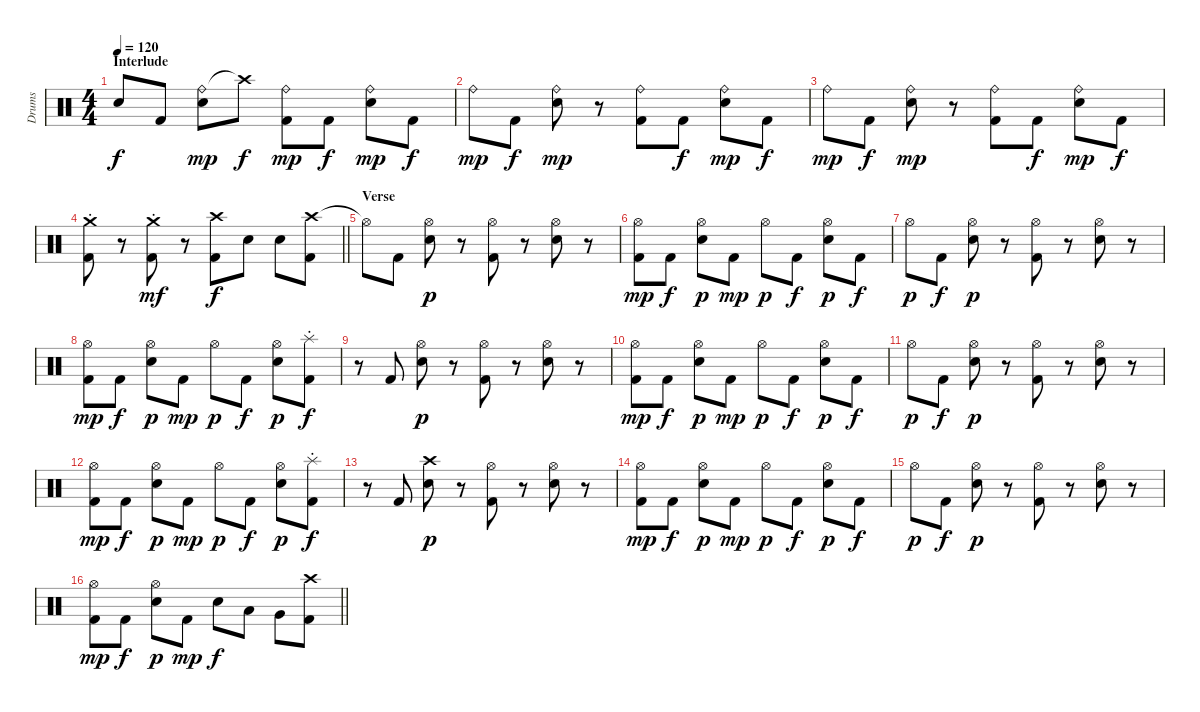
\track ("Drums" "Drums") {instrument percussion}
\staff {score}
\articulation defaults
\ts (4 4)
\section ("" "Interlude")
\tempo 120
\clef neutral
\ks c "Snare (hit)"{t}.8{dy f} "Kick (hit) 2".8
("Ride (bell)" "Electric Snare (hit)").8{dy mp} "Crash high (hit)"{t}.8{dy f} ("Ride (bell)" "Kick (hit) 2").8{dy mp} "Kick (hit) 2".8{dy f} ("Ride (bell)" "Electric Snare (hit)").8{dy mp} "Kick (hit) 2".8{dy f} |
"Ride (bell)".8{dy mp} "Kick (hit) 2".8{dy f} ("Ride (bell)" "Electric Snare (hit)").8{dy mp} r.8 ("Ride (bell)" "Kick (hit) 2").8 "Kick (hit) 2".8{dy f} ("Ride (bell)" "Electric Snare (hit)").8{dy mp} "Kick (hit) 2".8{dy f} |
"Ride (bell)".8{dy mp} "Kick (hit) 2".8{dy f} ("Ride (bell)" "Electric Snare (hit)").8{dy mp} r.8 ("Ride (bell)" "Kick (hit) 2").8 "Kick (hit) 2".8{dy f} ("Ride (bell)" "Electric Snare (hit)").8{dy mp} "Kick (hit) 2".8{dy f} |
\barLineRight lightlight
("Crash medium (hit)"{st} "Kick (hit) 2").8 r.8 ("Crash medium (hit)"{st} "Kick (hit) 2").8{dy mf} r.8 ("Crash high (hit)" "Kick (hit) 2").8{dy f} "Electric Snare (hit)".8 "Electric Snare (hit)".8 ("Crash high (hit)" "Kick (hit) 2").8 |
\section ("" "Verse")
"Hi-Hat (open)"{t}.8 "Kick (hit) 2".8 ("Hi-Hat (open)" "Electric Snare (hit)").8{dy p} r.8 ("Hi-Hat (open)" "Kick (hit) 2").8 r.8 ("Hi-Hat (open)" "Electric Snare (hit)").8 r.8 |
("Hi-Hat (open)" "Kick (hit) 2").8{dy mp} "Kick (hit) 2".8{dy f} ("Hi-Hat (open)" "Electric Snare (hit)").8{dy p} "Kick (hit) 2".8{dy mp} "Hi-Hat (open)".8{dy p} "Kick (hit) 2".8{dy f} ("Hi-Hat (open)" "Electric Snare (hit)").8{dy p} "Kick (hit) 2".8{dy f} |
"Hi-Hat (open)".8{dy p} "Kick (hit) 2".8{dy f} ("Hi-Hat (open)" "Electric Snare (hit)").8{dy p} r.8 ("Hi-Hat (open)" "Kick (hit) 2").8 r.8 ("Hi-Hat (open)" "Electric Snare (hit)").8 r.8 |
("Hi-Hat (open)" "Kick (hit) 2").8{dy mp} "Kick (hit) 2".8{dy f} ("Hi-Hat (open)" "Electric Snare (hit)").8{dy p} "Kick (hit) 2".8{dy mp} "Hi-Hat (open)".8{dy p} "Kick (hit) 2".8{dy f} ("Hi-Hat (open)" "Electric Snare (hit)").8{dy p} ("Splash (hit)"{st} "Kick (hit) 2").8{dy f} |
r.8 "Kick (hit) 2".8 ("Hi-Hat (open)" "Electric Snare (hit)").8{dy p} r.8 ("Hi-Hat (open)" "Kick (hit) 2").8 r.8 ("Hi-Hat (open)" "Electric Snare (hit)").8 r.8 |
("Hi-Hat (open)" "Kick (hit) 2").8{dy mp} "Kick (hit) 2".8{dy f} ("Hi-Hat (open)" "Electric Snare (hit)").8{dy p} "Kick (hit) 2".8{dy mp} "Hi-Hat (open)".8{dy p} "Kick (hit) 2".8{dy f} ("Hi-Hat (open)" "Electric Snare (hit)").8{dy p} "Kick (hit) 2".8{dy f} |
"Hi-Hat (open)".8{dy p} "Kick (hit) 2".8{dy f} ("Hi-Hat (open)" "Electric Snare (hit)").8{dy p} r.8 ("Hi-Hat (open)" "Kick (hit) 2").8 r.8 ("Hi-Hat (open)" "Electric Snare (hit)").8 r.8 |
("Hi-Hat (open)" "Kick (hit) 2").8{dy mp} "Kick (hit) 2".8{dy f} ("Hi-Hat (open)" "Electric Snare (hit)").8{dy p} "Kick (hit) 2".8{dy mp} "Hi-Hat (open)".8{dy p} "Kick (hit) 2".8{dy f} ("Hi-Hat (open)" "Electric Snare (hit)").8{dy p} ("Splash (hit)"{st} "Kick (hit) 2").8{dy f} |
r.8 "Kick (hit) 2".8 ("Crash high (hit)" "Electric Snare (hit)").8{dy p} r.8 ("Hi-Hat (open)" "Kick (hit) 2").8 r.8 ("Hi-Hat (open)" "Electric Snare (hit)").8 r.8 |
("Hi-Hat (open)" "Kick (hit) 2").8{dy mp} "Kick (hit) 2".8{dy f} ("Hi-Hat (open)" "Electric Snare (hit)").8{dy p} "Kick (hit) 2".8{dy mp} "Hi-Hat (open)".8{dy p} "Kick (hit) 2".8{dy f} ("Hi-Hat (open)" "Electric Snare (hit)").8{dy p} "Kick (hit) 2".8{dy f} |
"Hi-Hat (open)".8{dy p} "Kick (hit) 2".8{dy f} ("Hi-Hat (open)" "Electric Snare (hit)").8{dy p} r.8 ("Hi-Hat (open)" "Kick (hit) 2").8 r.8 ("Hi-Hat (open)" "Electric Snare (hit)").8 r.8 |
\barLineRight lightlight
("Hi-Hat (open)" "Kick (hit) 2").8{dy mp} "Kick (hit) 2".8{dy f} ("Hi-Hat (open)" "Electric Snare (hit)").8{dy p} "Kick (hit) 2".8{dy mp} "Electric Snare (hit)".8{dy f} "Low Tom (hit)".8 "Very Low Tom (hit)".8 ("Crash high (hit)" "Kick (hit) 2").8
